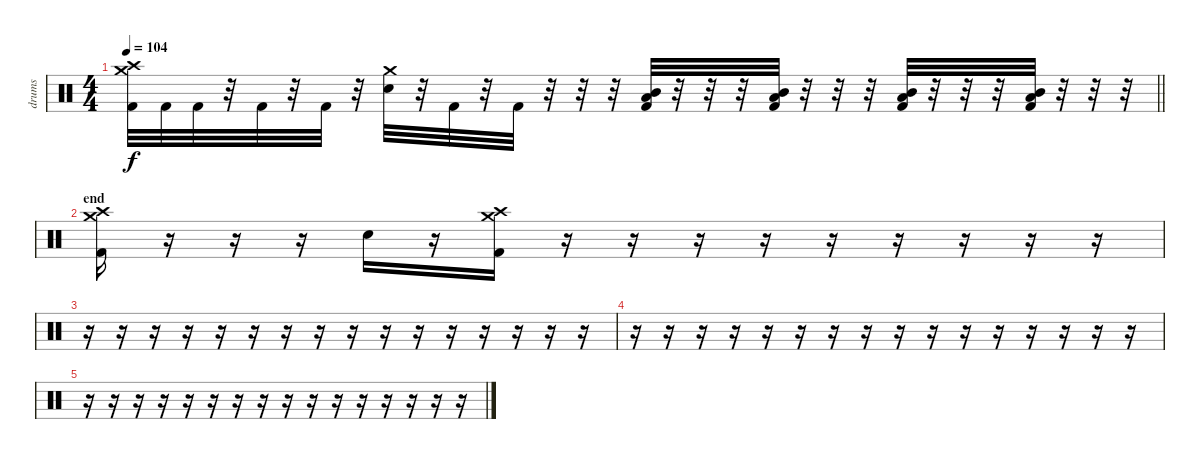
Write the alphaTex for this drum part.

\track ("drums" "drums") {instrument percussion}
\staff {score}
\articulation defaults
\ts (4 4)
\tempo 104
\clef neutral
\barLineRight lightlight
\ks c
("Crash medium (hit)" "Crash high (hit)" "Kick (hit) 2").32{dy f} "Kick (hit) 2".32 "Kick (hit) 2".32 r.32 "Kick (hit) 2".32 r.32 "Kick (hit) 2".32 r.32 ("Crash medium (hit)" "Electric Snare (hit)").32 r.32 "Kick (hit) 2".32 r.32 "Kick (hit) 2".32 r.32 r.32 r.32 ("Low Floor Tom (hit)" "Mid Tom (hit)" "Kick (hit) 2").32 r.32 r.32 r.32 ("Low Floor Tom (hit)" "Mid Tom (hit)" "Kick (hit) 2").32 r.32 r.32 r.32 ("Low Floor Tom (hit)" "Mid Tom (hit)" "Kick (hit) 2").32 r.32 r.32 r.32 ("Low Floor Tom (hit)" "Mid Tom (hit)" "Kick (hit) 2").32 r.32 r.32 r.32 |
\section ("" "end")
("Crash medium (hit)" "Crash high (hit)" "Kick (hit) 2").16 r.16 r.16 r.16 "Electric Snare (hit)".16 r.16 ("Crash medium (hit)" "Crash high (hit)" "Kick (hit) 2").16 r.16 r.16 r.16 r.16 r.16 r.16 r.16 r.16 r.16 |
r.16 r.16 r.16 r.16 r.16 r.16 r.16 r.16 r.16 r.16 r.16 r.16 r.16 r.16 r.16 r.16 |
r.16 r.16 r.16 r.16 r.16 r.16 r.16 r.16 r.16 r.16 r.16 r.16 r.16 r.16 r.16 r.16 |
r.16 r.16 r.16 r.16 r.16 r.16 r.16 r.16 r.16 r.16 r.16 r.16 r.16 r.16 r.16 r.16
